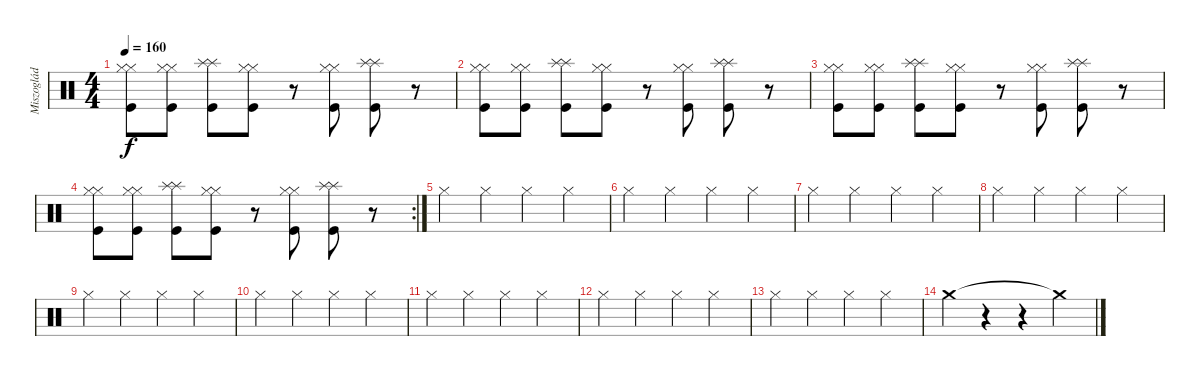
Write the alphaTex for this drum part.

\track ("Miszoglád Henrik - Dob" "Miszoglád ") {instrument percussion}
\staff {score}
\articulation defaults
\ts (4 4)
\tempo 160
\clef neutral
\ks c
("Kick (hit)" "Hi-Hat (closed)" "Hi-Hat (closed)").8{dy f} ("Kick (hit)" "Hi-Hat (closed)" "Hi-Hat (closed)").8 ("Splash (hit)" "Splash (hit)" "Kick (hit)").8 ("Kick (hit)" "Hi-Hat (closed)" "Hi-Hat (closed)").8 r.8 ("Kick (hit)" "Hi-Hat (closed)" "Hi-Hat (closed)").8 ("Splash (hit)" "Splash (hit)" "Kick (hit)").8 r.8 |
("Kick (hit)" "Hi-Hat (closed)" "Hi-Hat (closed)").8 ("Kick (hit)" "Hi-Hat (closed)" "Hi-Hat (closed)").8 ("Splash (hit)" "Splash (hit)" "Kick (hit)").8 ("Kick (hit)" "Hi-Hat (closed)" "Hi-Hat (closed)").8 r.8 ("Kick (hit)" "Hi-Hat (closed)" "Hi-Hat (closed)").8 ("Splash (hit)" "Splash (hit)" "Kick (hit)").8 r.8 |
("Kick (hit)" "Hi-Hat (closed)" "Hi-Hat (closed)").8 ("Kick (hit)" "Hi-Hat (closed)" "Hi-Hat (closed)").8 ("Splash (hit)" "Splash (hit)" "Kick (hit)").8 ("Kick (hit)" "Hi-Hat (closed)" "Hi-Hat (closed)").8 r.8 ("Kick (hit)" "Hi-Hat (closed)" "Hi-Hat (closed)").8 ("Splash (hit)" "Splash (hit)" "Kick (hit)").8 r.8 |
\rc 2
("Kick (hit)" "Hi-Hat (closed)" "Hi-Hat (closed)").8 ("Kick (hit)" "Hi-Hat (closed)" "Hi-Hat (closed)").8 ("Splash (hit)" "Splash (hit)" "Kick (hit)").8 ("Kick (hit)" "Hi-Hat (closed)" "Hi-Hat (closed)").8 r.8 ("Kick (hit)" "Hi-Hat (closed)" "Hi-Hat (closed)").8 ("Splash (hit)" "Splash (hit)" "Kick (hit)").8 r.8 |
"Hi-Hat (closed)".4 "Hi-Hat (closed)".4 "Hi-Hat (closed)".4 "Hi-Hat (closed)".4 |
"Hi-Hat (closed)".4 "Hi-Hat (closed)".4 "Hi-Hat (closed)".4 "Hi-Hat (closed)".4 |
"Hi-Hat (closed)".4 "Hi-Hat (closed)".4 "Hi-Hat (closed)".4 "Hi-Hat (closed)".4 |
"Hi-Hat (closed)".4 "Hi-Hat (closed)".4 "Hi-Hat (closed)".4 "Hi-Hat (closed)".4 |
"Hi-Hat (closed)".4 "Hi-Hat (closed)".4 "Hi-Hat (closed)".4 "Hi-Hat (closed)".4 |
"Hi-Hat (closed)".4 "Hi-Hat (closed)".4 "Hi-Hat (closed)".4 "Hi-Hat (closed)".4 |
"Hi-Hat (closed)".4 "Hi-Hat (closed)".4 "Hi-Hat (closed)".4 "Hi-Hat (closed)".4 |
"Hi-Hat (closed)".4 "Hi-Hat (closed)".4 "Hi-Hat (closed)".4 "Hi-Hat (closed)".4 |
"Hi-Hat (closed)".4 "Hi-Hat (closed)".4 "Hi-Hat (closed)".4 "Hi-Hat (closed)".4 |
"Crash medium (hit)".4 r.4 r.4 "Crash medium (hit)"{t}.4
